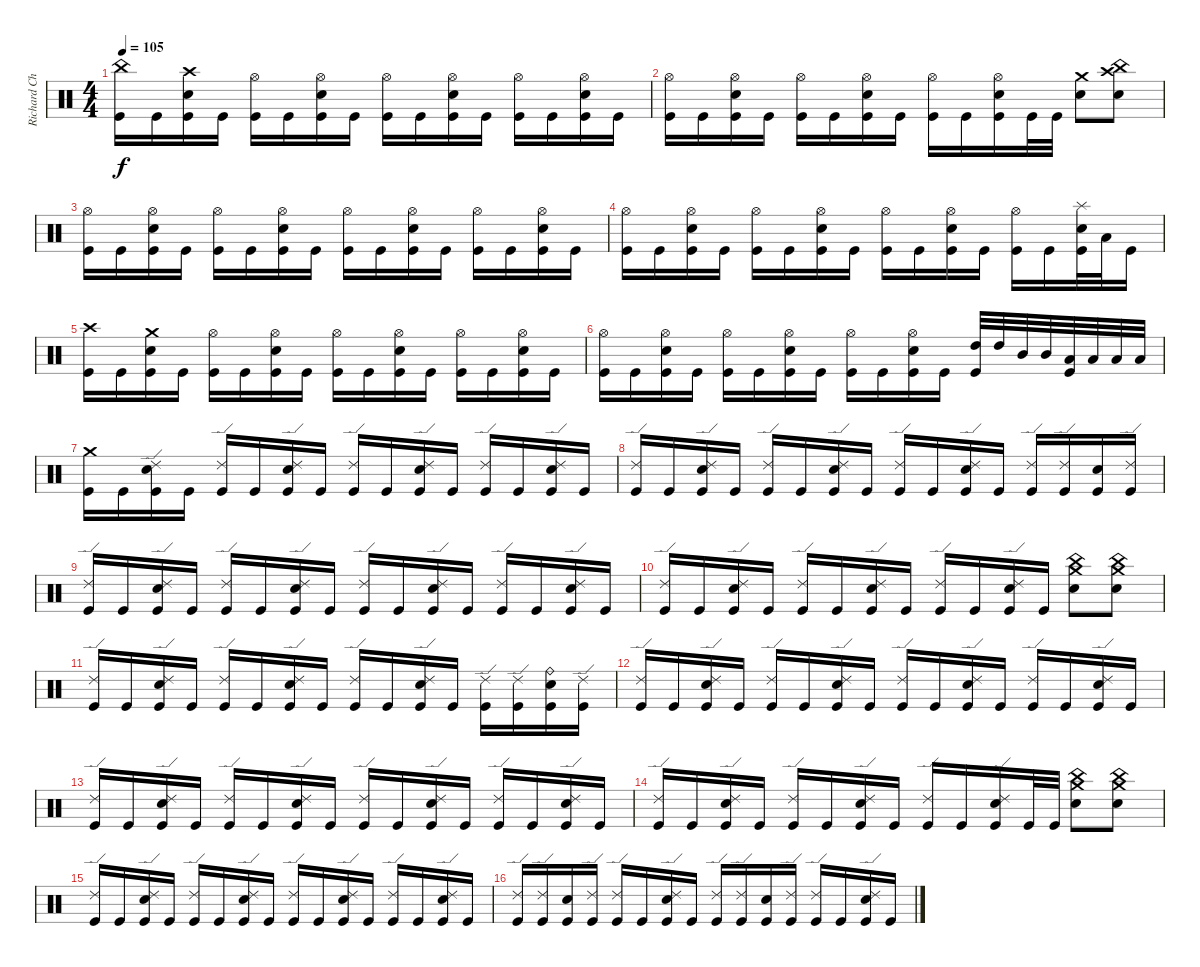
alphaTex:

\track ("Richard Christy" "Richard Ch") {instrument percussion}
\staff {score}
\articulation defaults
\ts (4 4)
\tempo 105
\clef neutral
\ks c
("China (hit)" "Kick (hit)").16{dy f} "Kick (hit)".16 ("Crash high (hit)" "Electric Snare (hit)" "Kick (hit)").16 "Kick (hit)".16 ("Hi-Hat (open)" "Kick (hit)").16 "Kick (hit)".16 ("Hi-Hat (open)" "Electric Snare (hit)" "Kick (hit)").16 "Kick (hit)".16 ("Hi-Hat (open)" "Kick (hit)").16 "Kick (hit)".16 ("Hi-Hat (open)" "Electric Snare (hit)" "Kick (hit)").16 "Kick (hit)".16 ("Hi-Hat (open)" "Kick (hit)").16 "Kick (hit)".16 ("Hi-Hat (open)" "Electric Snare (hit)" "Kick (hit)").16 "Kick (hit)".16 |
("Hi-Hat (open)" "Kick (hit)").16 "Kick (hit)".16 ("Hi-Hat (open)" "Electric Snare (hit)" "Kick (hit)").16 "Kick (hit)".16 ("Hi-Hat (open)" "Kick (hit)").16 "Kick (hit)".16 ("Hi-Hat (open)" "Electric Snare (hit)" "Kick (hit)").16 "Kick (hit)".16 ("Hi-Hat (open)" "Kick (hit)").16 "Kick (hit)".16 ("Hi-Hat (open)" "Electric Snare (hit)" "Kick (hit)").16 "Kick (hit)".32 "Kick (hit)".32 ("Crash medium (hit)" "Electric Snare (hit)").8 ("Crash high (hit)" "China (hit)" "Electric Snare (hit)").8 |
("Hi-Hat (open)" "Kick (hit)").16 "Kick (hit)".16 ("Hi-Hat (open)" "Electric Snare (hit)" "Kick (hit)").16 "Kick (hit)".16 ("Hi-Hat (open)" "Kick (hit)").16 "Kick (hit)".16 ("Hi-Hat (open)" "Electric Snare (hit)" "Kick (hit)").16 "Kick (hit)".16 ("Hi-Hat (open)" "Kick (hit)").16 "Kick (hit)".16 ("Hi-Hat (open)" "Electric Snare (hit)" "Kick (hit)").16 "Kick (hit)".16 ("Hi-Hat (open)" "Kick (hit)").16 "Kick (hit)".16 ("Hi-Hat (open)" "Electric Snare (hit)" "Kick (hit)").16 "Kick (hit)".16 |
("Hi-Hat (open)" "Kick (hit)").16 "Kick (hit)".16 ("Hi-Hat (open)" "Electric Snare (hit)" "Kick (hit)").16 "Kick (hit)".16 ("Hi-Hat (open)" "Kick (hit)").16 "Kick (hit)".16 ("Hi-Hat (open)" "Electric Snare (hit)" "Kick (hit)").16 "Kick (hit)".16 ("Hi-Hat (open)" "Kick (hit)").16 "Kick (hit)".16 ("Hi-Hat (open)" "Electric Snare (hit)" "Kick (hit)").16 "Kick (hit)".16 ("Hi-Hat (open)" "Kick (hit)").16 "Kick (hit)".16 ("Splash (hit)" "Electric Snare (hit)" "Kick (hit)").32 "Low Tom (hit)".32 "Kick (hit)".16 |
("Crash high (hit)" "Kick (hit)").16 "Kick (hit)".16 ("Crash medium (hit)" "Electric Snare (hit)" "Kick (hit)").16 "Kick (hit)".16 ("Hi-Hat (open)" "Kick (hit)").16 "Kick (hit)".16 ("Hi-Hat (open)" "Electric Snare (hit)" "Kick (hit)").16 "Kick (hit)".16 ("Hi-Hat (open)" "Kick (hit)").16 "Kick (hit)".16 ("Hi-Hat (open)" "Electric Snare (hit)" "Kick (hit)").16 "Kick (hit)".16 ("Hi-Hat (open)" "Kick (hit)").16 "Kick (hit)".16 ("Hi-Hat (open)" "Electric Snare (hit)" "Kick (hit)").16 "Kick (hit)".16 |
("Hi-Hat (open)" "Kick (hit)").16 "Kick (hit)".16 ("Hi-Hat (open)" "Electric Snare (hit)" "Kick (hit)").16 "Kick (hit)".16 ("Hi-Hat (open)" "Kick (hit)").16 "Kick (hit)".16 ("Hi-Hat (open)" "Electric Snare (hit)" "Kick (hit)").16 "Kick (hit)".16 ("Hi-Hat (open)" "Kick (hit)").16 "Kick (hit)".16 ("Hi-Hat (open)" "Electric Snare (hit)" "Kick (hit)").16 "Kick (hit)".16 ("High Tom (hit)" "Kick (hit)").32 "High Tom (hit)".32 "Mid Tom (hit)".32 "Mid Tom (hit)".32 ("Low Tom (hit)" "Kick (hit)").32 "Low Tom (hit)".32 "Low Tom (hit)".32 "Low Tom (hit)".32 |
("Crash medium (hit)" "Kick (hit)").16 "Kick (hit)".16 ("Ride (edge) 2" "Electric Snare (hit)" "Kick (hit)").16 "Kick (hit)".16 ("Ride (edge) 2" "Kick (hit)").16 "Kick (hit)".16 ("Ride (edge) 2" "Electric Snare (hit)" "Kick (hit)").16 "Kick (hit)".16 ("Ride (edge) 2" "Kick (hit)").16 "Kick (hit)".16 ("Ride (edge) 2" "Electric Snare (hit)" "Kick (hit)").16 "Kick (hit)".16 ("Ride (edge) 2" "Kick (hit)").16 "Kick (hit)".16 ("Ride (edge) 2" "Electric Snare (hit)" "Kick (hit)").16 "Kick (hit)".16 |
("Ride (edge) 2" "Kick (hit)").16 "Kick (hit)".16 ("Ride (edge) 2" "Electric Snare (hit)" "Kick (hit)").16 "Kick (hit)".16 ("Ride (edge) 2" "Kick (hit)").16 "Kick (hit)".16 ("Ride (edge) 2" "Electric Snare (hit)" "Kick (hit)").16 "Kick (hit)".16 ("Ride (edge) 2" "Kick (hit)").16 "Kick (hit)".16 ("Ride (edge) 2" "Electric Snare (hit)" "Kick (hit)").16 "Kick (hit)".16 ("Ride (edge) 2" "Kick (hit)").16 ("Ride (edge) 2" "Kick (hit)").16 ("Electric Snare (hit)" "Kick (hit)").16 ("Ride (edge) 2" "Kick (hit)").16 |
("Ride (edge) 2" "Kick (hit)").16 "Kick (hit)".16 ("Ride (edge) 2" "Electric Snare (hit)" "Kick (hit)").16 "Kick (hit)".16 ("Ride (edge) 2" "Kick (hit)").16 "Kick (hit)".16 ("Ride (edge) 2" "Electric Snare (hit)" "Kick (hit)").16 "Kick (hit)".16 ("Ride (edge) 2" "Kick (hit)").16 "Kick (hit)".16 ("Ride (edge) 2" "Electric Snare (hit)" "Kick (hit)").16 "Kick (hit)".16 ("Ride (edge) 2" "Kick (hit)").16 "Kick (hit)".16 ("Ride (edge) 2" "Electric Snare (hit)" "Kick (hit)").16 "Kick (hit)".16 |
("Ride (edge) 2" "Kick (hit)").16 "Kick (hit)".16 ("Ride (edge) 2" "Electric Snare (hit)" "Kick (hit)").16 "Kick (hit)".16 ("Ride (edge) 2" "Kick (hit)").16 "Kick (hit)".16 ("Ride (edge) 2" "Electric Snare (hit)" "Kick (hit)").16 "Kick (hit)".16 ("Ride (edge) 2" "Kick (hit)").16 "Kick (hit)".16 ("Ride (edge) 2" "Electric Snare (hit)" "Kick (hit)").16 "Kick (hit)".16 ("Crash medium (hit)" "China (hit)" "Electric Snare (hit)").8 ("Crash medium (hit)" "China (hit)" "Electric Snare (hit)").8 |
("Ride (edge) 2" "Kick (hit)").16 "Kick (hit)".16 ("Ride (edge) 2" "Electric Snare (hit)" "Kick (hit)").16 "Kick (hit)".16 ("Ride (edge) 2" "Kick (hit)").16 "Kick (hit)".16 ("Ride (edge) 2" "Electric Snare (hit)" "Kick (hit)").16 "Kick (hit)".16 ("Ride (edge) 2" "Kick (hit)").16 "Kick (hit)".16 ("Ride (edge) 2" "Electric Snare (hit)" "Kick (hit)").16 "Kick (hit)".16 ("Ride (edge) 2" "Kick (hit)").16 ("Ride (edge) 2" "Kick (hit)").16 ("Ride (bell)" "Electric Snare (hit)" "Kick (hit)").16 ("Ride (edge) 2" "Kick (hit)").16 |
("Ride (edge) 2" "Kick (hit)").16 "Kick (hit)".16 ("Ride (edge) 2" "Electric Snare (hit)" "Kick (hit)").16 "Kick (hit)".16 ("Ride (edge) 2" "Kick (hit)").16 "Kick (hit)".16 ("Ride (edge) 2" "Electric Snare (hit)" "Kick (hit)").16 "Kick (hit)".16 ("Ride (edge) 2" "Kick (hit)").16 "Kick (hit)".16 ("Ride (edge) 2" "Electric Snare (hit)" "Kick (hit)").16 "Kick (hit)".16 ("Ride (edge) 2" "Kick (hit)").16 "Kick (hit)".16 ("Ride (edge) 2" "Electric Snare (hit)" "Kick (hit)").16 "Kick (hit)".16 |
("Ride (edge) 2" "Kick (hit)").16 "Kick (hit)".16 ("Ride (edge) 2" "Electric Snare (hit)" "Kick (hit)").16 "Kick (hit)".16 ("Ride (edge) 2" "Kick (hit)").16 "Kick (hit)".16 ("Ride (edge) 2" "Electric Snare (hit)" "Kick (hit)").16 "Kick (hit)".16 ("Ride (edge) 2" "Kick (hit)").16 "Kick (hit)".16 ("Ride (edge) 2" "Electric Snare (hit)" "Kick (hit)").16 "Kick (hit)".16 ("Ride (edge) 2" "Kick (hit)").16 "Kick (hit)".16 ("Ride (edge) 2" "Electric Snare (hit)" "Kick (hit)").16 "Kick (hit)".16 |
("Ride (edge) 2" "Kick (hit)").16 "Kick (hit)".16 ("Ride (edge) 2" "Electric Snare (hit)" "Kick (hit)").16 "Kick (hit)".16 ("Ride (edge) 2" "Kick (hit)").16 "Kick (hit)".16 ("Ride (edge) 2" "Electric Snare (hit)" "Kick (hit)").16 "Kick (hit)".16 ("Ride (edge) 2" "Kick (hit)").16 "Kick (hit)".16 ("Ride (edge) 2" "Electric Snare (hit)" "Kick (hit)").16 "Kick (hit)".32 "Kick (hit)".32 ("Crash medium (hit)" "China (hit)" "Electric Snare (hit)").8 ("Crash medium (hit)" "China (hit)" "Electric Snare (hit)").8 |
("Ride (edge) 2" "Kick (hit)").16 "Kick (hit)".16 ("Ride (edge) 2" "Electric Snare (hit)" "Kick (hit)").16 "Kick (hit)".16 ("Ride (edge) 2" "Kick (hit)").16 "Kick (hit)".16 ("Ride (edge) 2" "Electric Snare (hit)" "Kick (hit)").16 "Kick (hit)".16 ("Ride (edge) 2" "Kick (hit)").16 "Kick (hit)".16 ("Ride (edge) 2" "Electric Snare (hit)" "Kick (hit)").16 "Kick (hit)".16 ("Ride (edge) 2" "Kick (hit)").16 "Kick (hit)".16 ("Ride (edge) 2" "Electric Snare (hit)" "Kick (hit)").16 "Kick (hit)".16 |
("Ride (edge) 2" "Kick (hit)").16 ("Ride (edge) 2" "Kick (hit)").16 ("Electric Snare (hit)" "Kick (hit)").16 ("Ride (edge) 2" "Kick (hit)").16 ("Ride (edge) 2" "Kick (hit)").16 "Kick (hit)".16 ("Ride (edge) 2" "Electric Snare (hit)" "Kick (hit)").16 "Kick (hit)".16 ("Ride (edge) 2" "Kick (hit)").16 ("Ride (edge) 2" "Kick (hit)").16 ("Electric Snare (hit)" "Kick (hit)").16 ("Ride (edge) 2" "Kick (hit)").16 ("Ride (edge) 2" "Kick (hit)").16 "Kick (hit)".16 ("Ride (edge) 2" "Electric Snare (hit)" "Kick (hit)").16 "Kick (hit)".16
